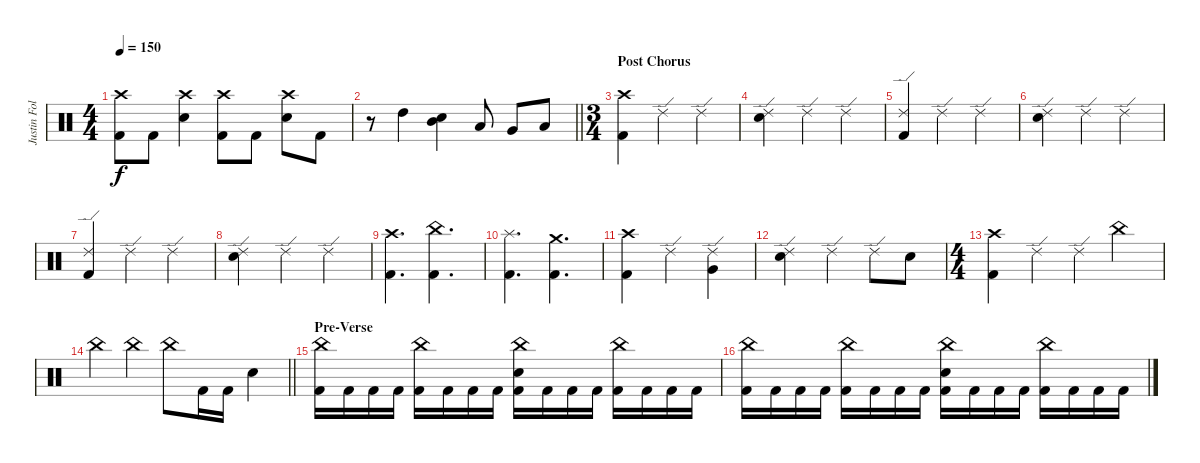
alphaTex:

\track ("Justin Foley" "Justin Fol") {instrument percussion}
\staff {score}
\articulation defaults
\ts (4 4)
\tempo 150
\clef neutral
\ks c
("Crash high (hit)" "Kick (hit) 2").8{dy f} "Kick (hit) 2".8 ("Crash high (hit)" "Snare (hit) 2").4 ("Crash high (hit)" "Kick (hit) 2").8 "Kick (hit) 2".8 ("Crash high (hit)" "Snare (hit) 2").8 "Kick (hit) 2".8 |
\barLineRight lightlight
r.8 "High Tom (hit)".4 ("Mid Tom (hit)" "Snare (hit) 2").4 "Low Tom (hit)".8 "Very Low Tom (hit)".8 "Low Floor Tom (hit)".8 |
\ts (3 4)
\section ("" "Post Chorus")
("Crash high (hit)" "Kick (hit) 2").4 "Ride (edge) 2".4 "Ride (edge) 2".4 |
("Ride (edge) 2" "Snare (hit) 2").4 "Ride (edge) 2".4 "Ride (edge) 2".4 |
("Ride (edge) 2" "Kick (hit) 2").4 "Ride (edge) 2".4 "Ride (edge) 2".4 |
("Ride (edge) 2" "Snare (hit) 2").4 "Ride (edge) 2".4 "Ride (edge) 2".4 |
("Ride (edge) 2" "Kick (hit) 2").4 "Ride (edge) 2".4 "Ride (edge) 2".4 |
("Ride (edge) 2" "Snare (hit) 2").4 "Ride (edge) 2".4 "Ride (edge) 2".4 |
("Crash high (hit)" "Kick (hit) 2").4{d} ("China (hit)" "Kick (hit) 2").4{d} |
("Splash (hit)" "Kick (hit) 2").4{d} ("Crash medium (hit)" "Kick (hit) 2").4{d} |
("Crash high (hit)" "Kick (hit) 2").4 "Ride (edge) 2".4 ("Ride (edge) 2" "Very Low Tom (hit)").4 |
("Ride (edge) 2" "Snare (hit) 2").4 "Ride (edge) 2".4 "Ride (edge) 2".8 "Snare (hit) 2".8 |
\ts (4 4)
("Crash high (hit)" "Kick (hit) 2").4 "Ride (edge) 2".4 "Ride (edge) 2".4 "China (hit)".4 |
\barLineRight lightlight "China (hit)".4 "China (hit)".4 "China (hit)".8 "Kick (hit) 2".16 "Kick (hit) 2".16 "Snare (hit) 2".4
|
\section ("" "Pre-Verse")
("China (hit)" "Kick (hit) 2").16 "Kick (hit) 2".16 "Kick (hit) 2".16 "Kick (hit) 2".16 ("China (hit)" "Kick (hit) 2").16 "Kick (hit) 2".16 "Kick (hit) 2".16 "Kick (hit) 2".16 ("China (hit)" "Snare (hit) 2" "Kick (hit) 2").16 "Kick (hit) 2".16 "Kick (hit) 2".16 "Kick (hit) 2".16 ("China (hit)" "Kick (hit) 2").16 "Kick (hit) 2".16 "Kick (hit) 2".16 "Kick (hit) 2".16 |
("China (hit)" "Kick (hit) 2").16 "Kick (hit) 2".16 "Kick (hit) 2".16 "Kick (hit) 2".16 ("China (hit)" "Kick (hit) 2").16 "Kick (hit) 2".16 "Kick (hit) 2".16 "Kick (hit) 2".16 ("China (hit)" "Snare (hit) 2" "Kick (hit) 2").16 "Kick (hit) 2".16 "Kick (hit) 2".16 "Kick (hit) 2".16 ("China (hit)" "Kick (hit) 2").16 "Kick (hit) 2".16 "Kick (hit) 2".16 "Kick (hit) 2".16
